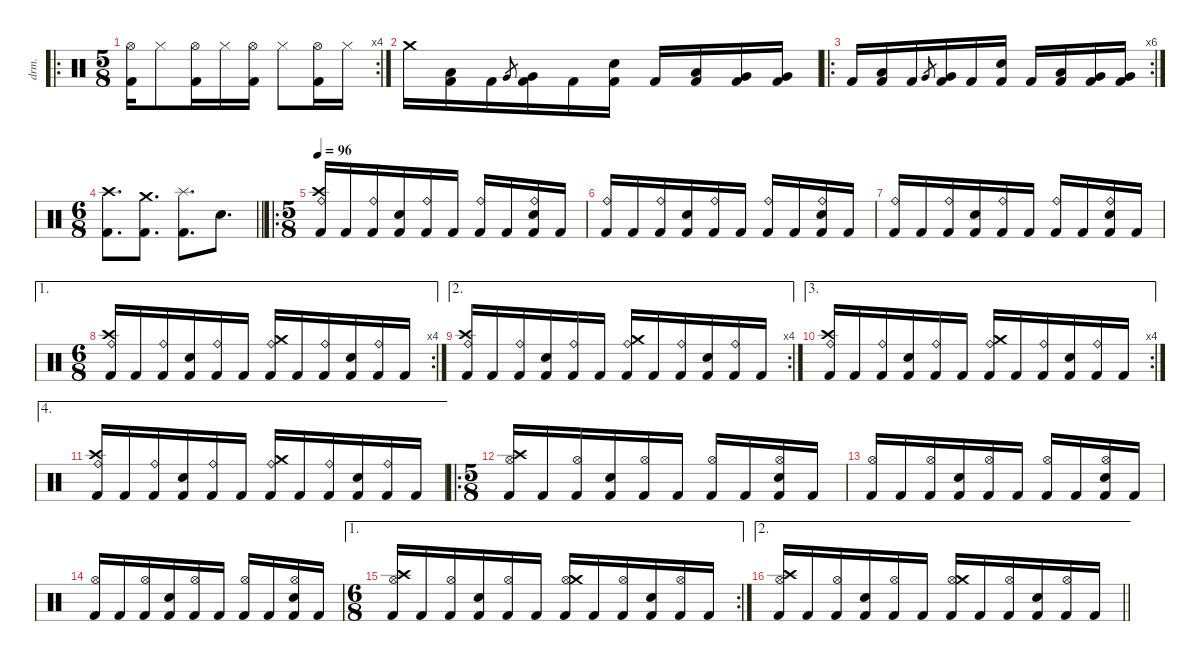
\defaultSystemsLayout 4
\hideDynamics
\bracketExtendMode nobrackets
\otherSystemsTrackNameOrientation horizontal
\track ("Drums" "drm.") {defaultSystemsLayout 4 instrument percussion}
\staff {score}
\articulation defaults
\ro
\rc 4
\ts (5 8)
\beaming (8 3 2)
\tempo (94.5 hide)
\clef neutral
\ks aminor
("Hi-Hat (open)" "Kick (hit) 2").16{dy fff beam Down} "Hi-Hat (closed)".8{dy f beam Down} ("Hi-Hat (open)" "Kick (hit) 2").16{dy fff beam Down} "Hi-Hat (closed)".16{dy f beam Down} ("Hi-Hat (open)" "Kick (hit) 2").16{beam Down} "Hi-Hat (closed)".8{beam Down} ("Hi-Hat (open)" "Kick (hit) 2").16{dy fff beam Down} "Hi-Hat (closed)".16{dy f beam Down} |
"Crash medium (hit)".16{dy fff beam Down} ("Low Tom (hit)" "Kick (hit) 2").16{dy ff beam Down} "Kick (hit) 2".16{dy f beam Down} "Very Low Tom (hit)".8{gr dy p beam Up} ("Very Low Tom (hit)" "Kick (hit) 2").16{dy f beam Down} "Kick (hit) 2".16{beam Down} ("Snare (hit) 2" "Kick (hit) 2").16{dy fff beam Down} "Kick (hit) 2".16{dy f beam Up} ("Low Tom (hit)" "Kick (hit) 2").16{dy ff beam Up} ("Very Low Tom (hit)" "Kick (hit) 2").16{dy f beam Up} ("Kick (hit) 2" "Very Low Tom (hit)").16{dy mf beam Up} |
\ro
\rc 6 "Kick (hit) 2".16{dy f beam Up}
("Low Tom (hit)" "Kick (hit) 2").16{dy ff beam Up} "Kick (hit) 2".16{dy f beam Up} "Very Low Tom (hit)".8{gr dy p beam Up} ("Very Low Tom (hit)" "Kick (hit) 2").16{dy f beam Up} "Kick (hit) 2".16{beam Up} ("Snare (hit) 2" "Kick (hit) 2").16{dy fff beam Up} "Kick (hit) 2".16{dy f beam Up} ("Low Tom (hit)" "Kick (hit) 2").16{dy ff beam Up} ("Very Low Tom (hit)" "Kick (hit) 2").16{dy f beam Up} ("Kick (hit) 2" "Very Low Tom (hit)").16{dy mf beam Up} |
\ts (6 8)
\beaming (8 3 3)
\tempo (97.5 hide)
\barLineRight lightlight
("Crash high (hit)" "Kick (hit) 2").8{d dy fff beam Down} ("Crash medium (hit)" "Kick (hit) 2").8{d beam Down} ("Splash (hit)" "Kick (hit) 2").8{d beam Down} "Snare (hit) 2".8{d dy ff beam Down} |
\ro
\ts (5 8)
\beaming (8 3 2)
\tempo 96
("Ride (bell)" "Crash high (hit)" "Kick (hit) 2").16{dy f beam Up} "Kick (hit) 2".16{dy ff beam Up} ("Ride (bell)" "Kick (hit) 2").16{dy f beam Up} ("Snare (hit) 2" "Kick (hit) 2").16{dy ff beam Up} ("Ride (bell)" "Kick (hit) 2").16{dy f beam Up} "Kick (hit) 2".16{dy ff beam Up} ("Ride (bell)" "Kick (hit) 2").16{dy f beam Up} "Kick (hit) 2".16{dy ff beam Up} ("Ride (bell)" "Snare (hit) 2" "Kick (hit) 2").16{dy f beam Up} "Kick (hit) 2".16{dy ff beam Up} |
("Ride (bell)" "Kick (hit) 2").16{dy f beam Up} "Kick (hit) 2".16{beam Up} ("Ride (bell)" "Kick (hit) 2").16{beam Up} ("Snare (hit) 2" "Kick (hit) 2").16{beam Up} ("Ride (bell)" "Kick (hit) 2").16{beam Up} "Kick (hit) 2".16{beam Up} ("Ride (bell)" "Kick (hit) 2").16{beam Up} "Kick (hit) 2".16{beam Up} ("Ride (bell)" "Snare (hit) 2" "Kick (hit) 2").16{beam Up} "Kick (hit) 2".16{beam Up} |
("Ride (bell)" "Kick (hit) 2").16{beam Up} "Kick (hit) 2".16{dy ff beam Up} ("Ride (bell)" "Kick (hit) 2").16{dy f beam Up} ("Snare (hit) 2" "Kick (hit) 2").16{dy ff beam Up} ("Ride (bell)" "Kick (hit) 2").16{dy f beam Up} "Kick (hit) 2".16{dy ff beam Up} ("Ride (bell)" "Kick (hit) 2").16{dy f beam Up} "Kick (hit) 2".16{dy ff beam Up} ("Ride (bell)" "Snare (hit) 2" "Kick (hit) 2").16{dy f beam Up} "Kick (hit) 2".16{dy ff beam Up} |
\ae 1
\rc 4
\ts (6 8)
\beaming (8 3 3)
("Ride (bell)" "Crash high (hit)" "Kick (hit) 2").16{dy f beam Up} "Kick (hit) 2".16{beam Up} ("Ride (bell)" "Kick (hit) 2").16{beam Up} ("Snare (hit) 2" "Kick (hit) 2").16{beam Up} ("Ride (bell)" "Kick (hit) 2").16{beam Up} "Kick (hit) 2".16{beam Up} ("Ride (bell)" "Crash medium (hit)" "Kick (hit) 2").16{beam Up} "Kick (hit) 2".16{beam Up} ("Ride (bell)" "Kick (hit) 2").16{beam Up} ("Snare (hit) 2" "Kick (hit) 2").16{beam Up} ("Ride (bell)" "Kick (hit) 2").16{beam Up} "Kick (hit) 2".16{beam Up} |
\ae 2
\rc 4
("Ride (bell)" "Crash high (hit)" "Kick (hit) 2").16{beam Up} "Kick (hit) 2".16{beam Up} ("Ride (bell)" "Kick (hit) 2").16{beam Up} ("Snare (hit) 2" "Kick (hit) 2").16{beam Up} ("Ride (bell)" "Kick (hit) 2").16{beam Up} "Kick (hit) 2".16{beam Up} ("Ride (bell)" "Crash medium (hit)" "Kick (hit) 2").16{beam Up} "Kick (hit) 2".16{beam Up} ("Ride (bell)" "Kick (hit) 2").16{beam Up} ("Snare (hit) 2" "Kick (hit) 2").16{beam Up} ("Ride (bell)" "Kick (hit) 2").16{beam Up} "Kick (hit) 2".16{beam Up} |
\ae 3
\rc 4
("Ride (bell)" "Crash high (hit)" "Kick (hit) 2").16{beam Up} "Kick (hit) 2".16{beam Up} ("Ride (bell)" "Kick (hit) 2").16{beam Up} ("Snare (hit) 2" "Kick (hit) 2").16{beam Up} ("Ride (bell)" "Kick (hit) 2").16{beam Up} "Kick (hit) 2".16{beam Up} ("Ride (bell)" "Crash medium (hit)" "Kick (hit) 2").16{beam Up} "Kick (hit) 2".16{beam Up} ("Ride (bell)" "Kick (hit) 2").16{beam Up} ("Snare (hit) 2" "Kick (hit) 2").16{beam Up} ("Ride (bell)" "Kick (hit) 2").16{beam Up} "Kick (hit) 2".16{beam Up} |
\ae 4
("Ride (bell)" "Crash high (hit)" "Kick (hit) 2").16{beam Up} "Kick (hit) 2".16{beam Up} ("Ride (bell)" "Kick (hit) 2").16{beam Up} ("Snare (hit) 2" "Kick (hit) 2").16{beam Up} ("Ride (bell)" "Kick (hit) 2").16{beam Up} "Kick (hit) 2".16{beam Up} ("Ride (bell)" "Crash medium (hit)" "Kick (hit) 2").16{beam Up} "Kick (hit) 2".16{beam Up} ("Ride (bell)" "Kick (hit) 2").16{beam Up} ("Snare (hit) 2" "Kick (hit) 2").16{beam Up} ("Ride (bell)" "Kick (hit) 2").16{beam Up} "Kick (hit) 2".16{beam Up} |
\ro
\ts (5 8)
\beaming (8 3 2)
("Hi-Hat (open)" "Crash high (hit)" "Kick (hit) 2").16{dy ff beam Up} "Kick (hit) 2".16{dy f beam Up} ("Hi-Hat (open)" "Kick (hit) 2").16{dy ff beam Up} ("Snare (hit) 2" "Kick (hit) 2").16{dy f beam Up} ("Hi-Hat (open)" "Kick (hit) 2").16{dy ff beam Up} "Kick (hit) 2".16{dy f beam Up} ("Hi-Hat (open)" "Kick (hit) 2").16{dy ff beam Up} "Kick (hit) 2".16{dy f beam Up} ("Hi-Hat (open)" "Snare (hit) 2" "Kick (hit) 2").16{dy ff beam Up} "Kick (hit) 2".16{dy f beam Up} |
("Hi-Hat (open)" "Kick (hit) 2").16{dy ff beam Up} "Kick (hit) 2".16{dy f beam Up} ("Hi-Hat (open)" "Kick (hit) 2").16{dy ff beam Up} ("Snare (hit) 2" "Kick (hit) 2").16{dy f beam Up} ("Hi-Hat (open)" "Kick (hit) 2").16{dy ff beam Up} "Kick (hit) 2".16{dy f beam Up} ("Hi-Hat (open)" "Kick (hit) 2").16{dy ff beam Up} "Kick (hit) 2".16{dy f beam Up} ("Hi-Hat (open)" "Snare (hit) 2" "Kick (hit) 2").16{dy ff beam Up} "Kick (hit) 2".16{dy f beam Up} |
("Hi-Hat (open)" "Kick (hit) 2").16{dy ff beam Up} "Kick (hit) 2".16{dy f beam Up} ("Hi-Hat (open)" "Kick (hit) 2").16{dy ff beam Up} ("Snare (hit) 2" "Kick (hit) 2").16{dy f beam Up} ("Hi-Hat (open)" "Kick (hit) 2").16{dy ff beam Up} "Kick (hit) 2".16{dy f beam Up} ("Hi-Hat (open)" "Kick (hit) 2").16{dy ff beam Up} "Kick (hit) 2".16{dy f beam Up} ("Hi-Hat (open)" "Snare (hit) 2" "Kick (hit) 2").16{dy ff beam Up} "Kick (hit) 2".16{dy f beam Up} |
\ae 1
\rc 2
\ts (6 8)
\beaming (8 3 3)
("Hi-Hat (open)" "Crash high (hit)" "Kick (hit) 2").16{dy ff beam Up} "Kick (hit) 2".16{dy f beam Up} ("Hi-Hat (open)" "Kick (hit) 2").16{dy ff beam Up} ("Snare (hit) 2" "Kick (hit) 2").16{dy f beam Up} ("Hi-Hat (open)" "Kick (hit) 2").16{dy ff beam Up} "Kick (hit) 2".16{dy f beam Up} ("Hi-Hat (open)" "Crash medium (hit)" "Kick (hit) 2").16{dy ff beam Up} "Kick (hit) 2".16{dy f beam Up} ("Hi-Hat (open)" "Kick (hit) 2").16{dy ff beam Up} ("Snare (hit) 2" "Kick (hit) 2").16{dy f beam Up} ("Hi-Hat (open)" "Kick (hit) 2").16{dy ff beam Up} "Kick (hit) 2".16{dy f beam Up} |
\ae 2
\barLineRight lightlight
("Hi-Hat (open)" "Crash high (hit)" "Kick (hit) 2").16{dy ff beam Up} "Kick (hit) 2".16{dy f beam Up} ("Hi-Hat (open)" "Kick (hit) 2").16{dy ff beam Up} ("Snare (hit) 2" "Kick (hit) 2").16{dy f beam Up} ("Hi-Hat (open)" "Kick (hit) 2").16{dy ff beam Up} "Kick (hit) 2".16{dy f beam Up} ("Hi-Hat (open)" "Crash medium (hit)" "Kick (hit) 2").16{dy ff beam Up} "Kick (hit) 2".16{dy f beam Up} ("Hi-Hat (open)" "Kick (hit) 2").16{dy ff beam Up} ("Snare (hit) 2" "Kick (hit) 2").16{dy f beam Up} ("Hi-Hat (open)" "Kick (hit) 2").16{dy ff beam Up} "Kick (hit) 2".16{dy f beam Up}
